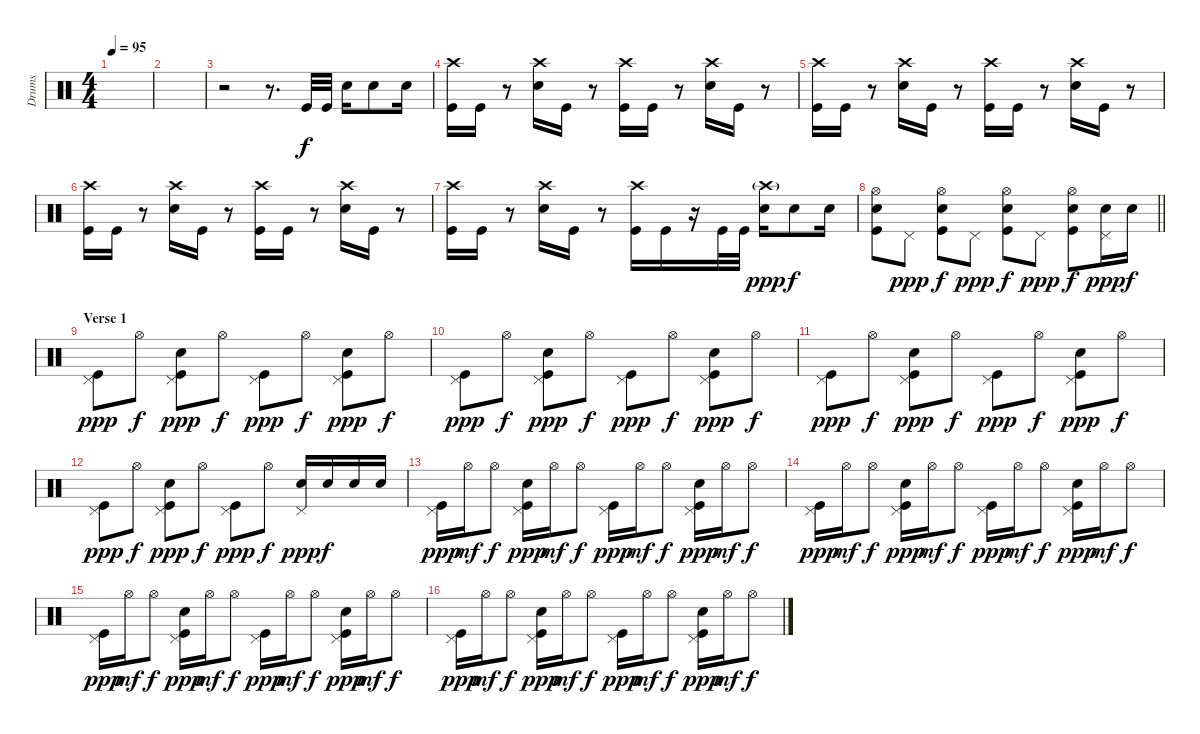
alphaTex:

\track ("Drums" "Drums") {instrument percussion}
\staff {score}
\articulation defaults
\ts (4 4)
\tempo 95
\clef neutral
\ks c
|
|
r.2 r.8{d} "Kick (hit)".32 "Kick (hit)".32 "Snare (hit) 2".16 "Snare (hit) 2".8 "Snare (hit) 2".16 |
("Crash high (hit)" "Kick (hit)").16 "Kick (hit)".16 r.8 ("Crash high (hit)" "Snare (hit) 2").16 "Kick (hit)".16 r.8 ("Crash high (hit)" "Kick (hit)").16 "Kick (hit)".16 r.8 ("Crash high (hit)" "Snare (hit) 2").16 "Kick (hit)".16 r.8 |
("Crash high (hit)" "Kick (hit)").16 "Kick (hit)".16 r.8 ("Crash high (hit)" "Snare (hit) 2").16 "Kick (hit)".16 r.8 ("Crash high (hit)" "Kick (hit)").16 "Kick (hit)".16 r.8 ("Crash high (hit)" "Snare (hit) 2").16 "Kick (hit)".16 r.8 |
("Crash high (hit)" "Kick (hit)").16 "Kick (hit)".16 r.8 ("Crash high (hit)" "Snare (hit) 2").16 "Kick (hit)".16 r.8 ("Crash high (hit)" "Kick (hit)").16 "Kick (hit)".16 r.8 ("Crash high (hit)" "Snare (hit) 2").16 "Kick (hit)".16 r.8 |
("Crash high (hit)" "Kick (hit)").16 "Kick (hit)".16 r.8 ("Crash high (hit)" "Snare (hit) 2").16 "Kick (hit)".16 r.8 ("Crash high (hit)" "Kick (hit)").16 "Kick (hit)".16 r.16 "Kick (hit)".32 "Kick (hit)".32 ("Crash high (hit)"{g} "Snare (hit) 2").16{dy ppp} "Snare (hit) 2".8{dy f} "Snare (hit) 2".16 |
\barLineRight lightlight
("Hi-Hat (open)" "Snare (hit) 2" "Kick (hit)").8 "Pedal Hi-Hat (hit)".8{dy ppp} ("Hi-Hat (open)" "Snare (hit) 2" "Kick (hit)").8{dy f} "Pedal Hi-Hat (hit)".8{dy ppp} ("Hi-Hat (open)" "Snare (hit) 2" "Kick (hit)").8{dy f} "Pedal Hi-Hat (hit)".8{dy ppp} ("Hi-Hat (open)" "Snare (hit) 2" "Kick (hit)").8{dy f} ("Pedal Hi-Hat (hit)" "Snare (hit) 2").16{dy ppp} "Snare (hit) 2".16{dy f} |
\section ("" "Verse 1")
("Pedal Hi-Hat (hit)" "Kick (hit)").8{dy ppp} "Hi-Hat (open)".8{dy f} ("Pedal Hi-Hat (hit)" "Snare (hit) 2" "Kick (hit)").8{dy ppp} "Hi-Hat (open)".8{dy f} ("Pedal Hi-Hat (hit)" "Kick (hit)").8{dy ppp} "Hi-Hat (open)".8{dy f} ("Pedal Hi-Hat (hit)" "Snare (hit) 2" "Kick (hit)").8{dy ppp} "Hi-Hat (open)".8{dy f} |
("Pedal Hi-Hat (hit)" "Kick (hit)").8{dy ppp} "Hi-Hat (open)".8{dy f} ("Pedal Hi-Hat (hit)" "Snare (hit) 2" "Kick (hit)").8{dy ppp} "Hi-Hat (open)".8{dy f} ("Pedal Hi-Hat (hit)" "Kick (hit)").8{dy ppp} "Hi-Hat (open)".8{dy f} ("Pedal Hi-Hat (hit)" "Snare (hit) 2" "Kick (hit)").8{dy ppp} "Hi-Hat (open)".8{dy f} |
("Pedal Hi-Hat (hit)" "Kick (hit)").8{dy ppp} "Hi-Hat (open)".8{dy f} ("Pedal Hi-Hat (hit)" "Snare (hit) 2" "Kick (hit)").8{dy ppp} "Hi-Hat (open)".8{dy f} ("Pedal Hi-Hat (hit)" "Kick (hit)").8{dy ppp} "Hi-Hat (open)".8{dy f} ("Pedal Hi-Hat (hit)" "Snare (hit) 2" "Kick (hit)").8{dy ppp} "Hi-Hat (open)".8{dy f} |
("Pedal Hi-Hat (hit)" "Kick (hit)").8{dy ppp} "Hi-Hat (open)".8{dy f} ("Pedal Hi-Hat (hit)" "Snare (hit) 2" "Kick (hit)").8{dy ppp} "Hi-Hat (open)".8{dy f} ("Pedal Hi-Hat (hit)" "Kick (hit)").8{dy ppp} "Hi-Hat (open)".8{dy f} ("Pedal Hi-Hat (hit)" "Snare (hit) 2").16{dy ppp} "Snare (hit) 2".16{dy f} "Snare (hit) 2".16 "Snare (hit) 2".16 |
("Pedal Hi-Hat (hit)" "Kick (hit)").16{dy ppp} "Hi-Hat (open)".16{dy mf} "Hi-Hat (open)".8{dy f} ("Pedal Hi-Hat (hit)" "Snare (hit) 2" "Kick (hit)").16{dy ppp} "Hi-Hat (open)".16{dy mf} "Hi-Hat (open)".8{dy f} ("Pedal Hi-Hat (hit)" "Kick (hit)").16{dy ppp} "Hi-Hat (open)".16{dy mf} "Hi-Hat (open)".8{dy f} ("Pedal Hi-Hat (hit)" "Snare (hit) 2" "Kick (hit)").16{dy ppp} "Hi-Hat (open)".16{dy mf} "Hi-Hat (open)".8{dy f} |
("Pedal Hi-Hat (hit)" "Kick (hit)").16{dy ppp} "Hi-Hat (open)".16{dy mf} "Hi-Hat (open)".8{dy f} ("Pedal Hi-Hat (hit)" "Snare (hit) 2" "Kick (hit)").16{dy ppp} "Hi-Hat (open)".16{dy mf} "Hi-Hat (open)".8{dy f} ("Pedal Hi-Hat (hit)" "Kick (hit)").16{dy ppp} "Hi-Hat (open)".16{dy mf} "Hi-Hat (open)".8{dy f} ("Pedal Hi-Hat (hit)" "Snare (hit) 2" "Kick (hit)").16{dy ppp} "Hi-Hat (open)".16{dy mf} "Hi-Hat (open)".8{dy f} |
("Pedal Hi-Hat (hit)" "Kick (hit)").16{dy ppp} "Hi-Hat (open)".16{dy mf} "Hi-Hat (open)".8{dy f} ("Pedal Hi-Hat (hit)" "Snare (hit) 2" "Kick (hit)").16{dy ppp} "Hi-Hat (open)".16{dy mf} "Hi-Hat (open)".8{dy f} ("Pedal Hi-Hat (hit)" "Kick (hit)").16{dy ppp} "Hi-Hat (open)".16{dy mf} "Hi-Hat (open)".8{dy f} ("Pedal Hi-Hat (hit)" "Snare (hit) 2" "Kick (hit)").16{dy ppp} "Hi-Hat (open)".16{dy mf} "Hi-Hat (open)".8{dy f} |
("Pedal Hi-Hat (hit)" "Kick (hit)").16{dy ppp} "Hi-Hat (open)".16{dy mf} "Hi-Hat (open)".8{dy f} ("Pedal Hi-Hat (hit)" "Snare (hit) 2" "Kick (hit)").16{dy ppp} "Hi-Hat (open)".16{dy mf} "Hi-Hat (open)".8{dy f} ("Pedal Hi-Hat (hit)" "Kick (hit)").16{dy ppp} "Hi-Hat (open)".16{dy mf} "Hi-Hat (open)".8{dy f} ("Pedal Hi-Hat (hit)" "Snare (hit) 2" "Kick (hit)").16{dy ppp} "Hi-Hat (open)".16{dy mf} "Hi-Hat (open)".8{dy f}
